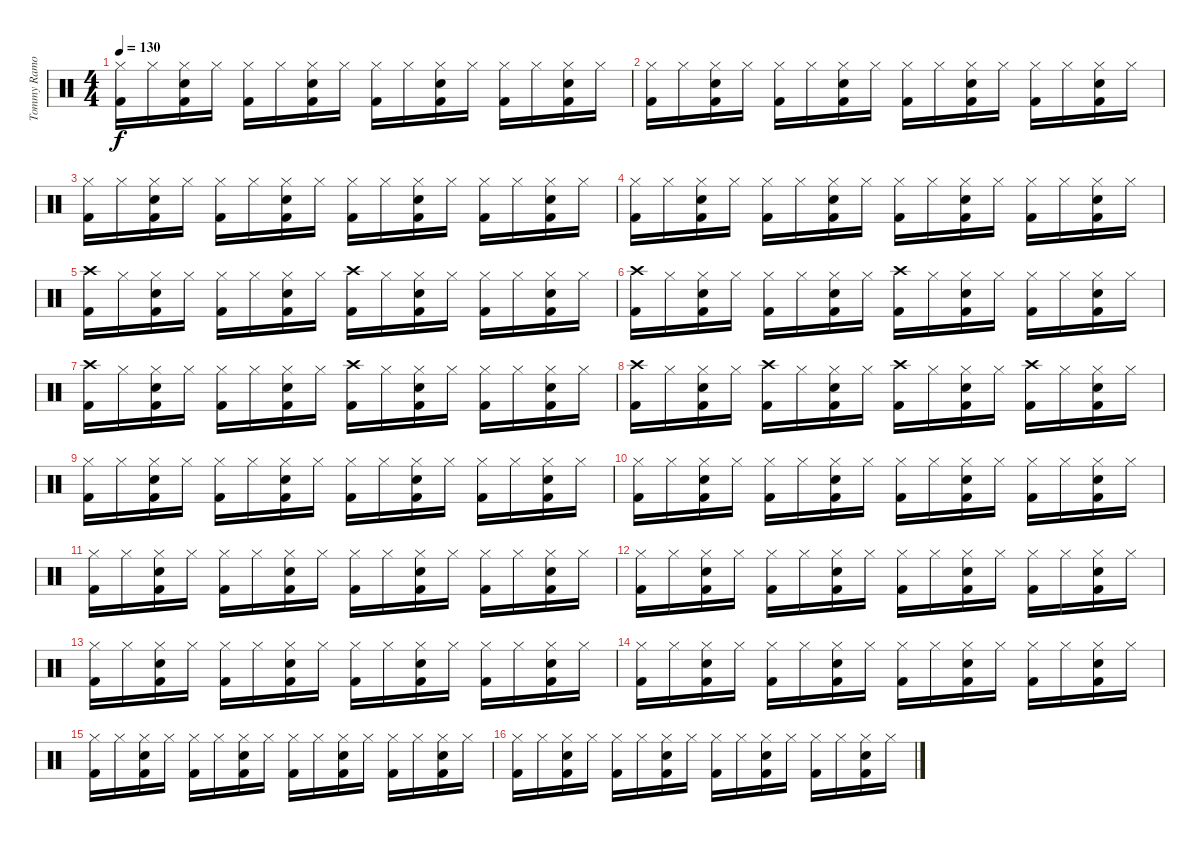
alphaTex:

\track ("Tommy Ramone - Percusion" "Tommy Ramo") {instrument percussion}
\staff {score}
\articulation defaults
\ts (4 4)
\tempo 130
\clef neutral
\ks c
("Hi-Hat (closed)" "Kick (hit) 2").16{dy f} "Hi-Hat (closed)".16 ("Hi-Hat (closed)" "Electric Snare (hit)" "Kick (hit) 2").16 "Hi-Hat (closed)".16 ("Hi-Hat (closed)" "Kick (hit) 2").16 "Hi-Hat (closed)".16 ("Hi-Hat (closed)" "Electric Snare (hit)" "Kick (hit) 2").16 "Hi-Hat (closed)".16 ("Hi-Hat (closed)" "Kick (hit) 2").16 "Hi-Hat (closed)".16 ("Hi-Hat (closed)" "Electric Snare (hit)" "Kick (hit) 2").16 "Hi-Hat (closed)".16 ("Hi-Hat (closed)" "Kick (hit) 2").16 "Hi-Hat (closed)".16 ("Hi-Hat (closed)" "Electric Snare (hit)" "Kick (hit) 2").16 "Hi-Hat (closed)".16 |
("Hi-Hat (closed)" "Kick (hit) 2").16 "Hi-Hat (closed)".16 ("Hi-Hat (closed)" "Electric Snare (hit)" "Kick (hit) 2").16 "Hi-Hat (closed)".16 ("Hi-Hat (closed)" "Kick (hit) 2").16 "Hi-Hat (closed)".16 ("Hi-Hat (closed)" "Electric Snare (hit)" "Kick (hit) 2").16 "Hi-Hat (closed)".16 ("Hi-Hat (closed)" "Kick (hit) 2").16 "Hi-Hat (closed)".16 ("Hi-Hat (closed)" "Electric Snare (hit)" "Kick (hit) 2").16 "Hi-Hat (closed)".16 ("Hi-Hat (closed)" "Kick (hit) 2").16 "Hi-Hat (closed)".16 ("Hi-Hat (closed)" "Electric Snare (hit)" "Kick (hit) 2").16 "Hi-Hat (closed)".16 |
("Hi-Hat (closed)" "Kick (hit) 2").16 "Hi-Hat (closed)".16 ("Hi-Hat (closed)" "Electric Snare (hit)" "Kick (hit) 2").16 "Hi-Hat (closed)".16 ("Hi-Hat (closed)" "Kick (hit) 2").16 "Hi-Hat (closed)".16 ("Hi-Hat (closed)" "Electric Snare (hit)" "Kick (hit) 2").16 "Hi-Hat (closed)".16 ("Hi-Hat (closed)" "Kick (hit) 2").16 "Hi-Hat (closed)".16 ("Hi-Hat (closed)" "Electric Snare (hit)" "Kick (hit) 2").16 "Hi-Hat (closed)".16 ("Hi-Hat (closed)" "Kick (hit) 2").16 "Hi-Hat (closed)".16 ("Hi-Hat (closed)" "Electric Snare (hit)" "Kick (hit) 2").16 "Hi-Hat (closed)".16 |
("Hi-Hat (closed)" "Kick (hit) 2").16 "Hi-Hat (closed)".16 ("Hi-Hat (closed)" "Electric Snare (hit)" "Kick (hit) 2").16 "Hi-Hat (closed)".16 ("Hi-Hat (closed)" "Kick (hit) 2").16 "Hi-Hat (closed)".16 ("Hi-Hat (closed)" "Electric Snare (hit)" "Kick (hit) 2").16 "Hi-Hat (closed)".16 ("Hi-Hat (closed)" "Kick (hit) 2").16 "Hi-Hat (closed)".16 ("Hi-Hat (closed)" "Electric Snare (hit)" "Kick (hit) 2").16 "Hi-Hat (closed)".16 ("Hi-Hat (closed)" "Kick (hit) 2").16 "Hi-Hat (closed)".16 ("Hi-Hat (closed)" "Electric Snare (hit)" "Kick (hit) 2").16 "Hi-Hat (closed)".16 |
("Crash high (hit)" "Kick (hit) 2").16 "Hi-Hat (closed)".16 ("Hi-Hat (closed)" "Electric Snare (hit)" "Kick (hit) 2").16 "Hi-Hat (closed)".16 ("Hi-Hat (closed)" "Kick (hit) 2").16 "Hi-Hat (closed)".16 ("Hi-Hat (closed)" "Electric Snare (hit)" "Kick (hit) 2").16 "Hi-Hat (closed)".16 ("Crash high (hit)" "Kick (hit) 2").16 "Hi-Hat (closed)".16 ("Hi-Hat (closed)" "Electric Snare (hit)" "Kick (hit) 2").16 "Hi-Hat (closed)".16 ("Hi-Hat (closed)" "Kick (hit) 2").16 "Hi-Hat (closed)".16 ("Hi-Hat (closed)" "Electric Snare (hit)" "Kick (hit) 2").16 "Hi-Hat (closed)".16 |
("Crash high (hit)" "Kick (hit) 2").16 "Hi-Hat (closed)".16 ("Hi-Hat (closed)" "Electric Snare (hit)" "Kick (hit) 2").16 "Hi-Hat (closed)".16 ("Hi-Hat (closed)" "Kick (hit) 2").16 "Hi-Hat (closed)".16 ("Hi-Hat (closed)" "Electric Snare (hit)" "Kick (hit) 2").16 "Hi-Hat (closed)".16 ("Crash high (hit)" "Kick (hit) 2").16 "Hi-Hat (closed)".16 ("Hi-Hat (closed)" "Electric Snare (hit)" "Kick (hit) 2").16 "Hi-Hat (closed)".16 ("Hi-Hat (closed)" "Kick (hit) 2").16 "Hi-Hat (closed)".16 ("Hi-Hat (closed)" "Electric Snare (hit)" "Kick (hit) 2").16 "Hi-Hat (closed)".16 |
("Crash high (hit)" "Kick (hit) 2").16 "Hi-Hat (closed)".16 ("Hi-Hat (closed)" "Electric Snare (hit)" "Kick (hit) 2").16 "Hi-Hat (closed)".16 ("Hi-Hat (closed)" "Kick (hit) 2").16 "Hi-Hat (closed)".16 ("Hi-Hat (closed)" "Electric Snare (hit)" "Kick (hit) 2").16 "Hi-Hat (closed)".16 ("Crash high (hit)" "Kick (hit) 2").16 "Hi-Hat (closed)".16 ("Hi-Hat (closed)" "Electric Snare (hit)" "Kick (hit) 2").16 "Hi-Hat (closed)".16 ("Hi-Hat (closed)" "Kick (hit) 2").16 "Hi-Hat (closed)".16 ("Hi-Hat (closed)" "Electric Snare (hit)" "Kick (hit) 2").16 "Hi-Hat (closed)".16 |
("Crash high (hit)" "Kick (hit) 2").16 "Hi-Hat (closed)".16 ("Hi-Hat (closed)" "Electric Snare (hit)" "Kick (hit) 2").16 "Hi-Hat (closed)".16 ("Crash high (hit)" "Kick (hit) 2").16 "Hi-Hat (closed)".16 ("Hi-Hat (closed)" "Electric Snare (hit)" "Kick (hit) 2").16 "Hi-Hat (closed)".16 ("Crash high (hit)" "Kick (hit) 2").16 "Hi-Hat (closed)".16 ("Hi-Hat (closed)" "Electric Snare (hit)" "Kick (hit) 2").16 "Hi-Hat (closed)".16 ("Crash high (hit)" "Kick (hit) 2").16 "Hi-Hat (closed)".16 ("Hi-Hat (closed)" "Electric Snare (hit)" "Kick (hit) 2").16 "Hi-Hat (closed)".16 |
("Hi-Hat (closed)" "Kick (hit) 2").16 "Hi-Hat (closed)".16 ("Hi-Hat (closed)" "Electric Snare (hit)" "Kick (hit) 2").16 "Hi-Hat (closed)".16 ("Hi-Hat (closed)" "Kick (hit) 2").16 "Hi-Hat (closed)".16 ("Hi-Hat (closed)" "Electric Snare (hit)" "Kick (hit) 2").16 "Hi-Hat (closed)".16 ("Hi-Hat (closed)" "Kick (hit) 2").16 "Hi-Hat (closed)".16 ("Hi-Hat (closed)" "Electric Snare (hit)" "Kick (hit) 2").16 "Hi-Hat (closed)".16 ("Hi-Hat (closed)" "Kick (hit) 2").16 "Hi-Hat (closed)".16 ("Hi-Hat (closed)" "Electric Snare (hit)" "Kick (hit) 2").16 "Hi-Hat (closed)".16 |
("Hi-Hat (closed)" "Kick (hit) 2").16 "Hi-Hat (closed)".16 ("Hi-Hat (closed)" "Electric Snare (hit)" "Kick (hit) 2").16 "Hi-Hat (closed)".16 ("Hi-Hat (closed)" "Kick (hit) 2").16 "Hi-Hat (closed)".16 ("Hi-Hat (closed)" "Electric Snare (hit)" "Kick (hit) 2").16 "Hi-Hat (closed)".16 ("Hi-Hat (closed)" "Kick (hit) 2").16 "Hi-Hat (closed)".16 ("Hi-Hat (closed)" "Electric Snare (hit)" "Kick (hit) 2").16 "Hi-Hat (closed)".16 ("Hi-Hat (closed)" "Kick (hit) 2").16 "Hi-Hat (closed)".16 ("Hi-Hat (closed)" "Electric Snare (hit)" "Kick (hit) 2").16 "Hi-Hat (closed)".16 |
("Hi-Hat (closed)" "Kick (hit) 2").16 "Hi-Hat (closed)".16 ("Hi-Hat (closed)" "Electric Snare (hit)" "Kick (hit) 2").16 "Hi-Hat (closed)".16 ("Hi-Hat (closed)" "Kick (hit) 2").16 "Hi-Hat (closed)".16 ("Hi-Hat (closed)" "Electric Snare (hit)" "Kick (hit) 2").16 "Hi-Hat (closed)".16 ("Hi-Hat (closed)" "Kick (hit) 2").16 "Hi-Hat (closed)".16 ("Hi-Hat (closed)" "Electric Snare (hit)" "Kick (hit) 2").16 "Hi-Hat (closed)".16 ("Hi-Hat (closed)" "Kick (hit) 2").16 "Hi-Hat (closed)".16 ("Hi-Hat (closed)" "Electric Snare (hit)" "Kick (hit) 2").16 "Hi-Hat (closed)".16 |
("Hi-Hat (closed)" "Kick (hit) 2").16 "Hi-Hat (closed)".16 ("Hi-Hat (closed)" "Electric Snare (hit)" "Kick (hit) 2").16 "Hi-Hat (closed)".16 ("Hi-Hat (closed)" "Kick (hit) 2").16 "Hi-Hat (closed)".16 ("Hi-Hat (closed)" "Electric Snare (hit)" "Kick (hit) 2").16 "Hi-Hat (closed)".16 ("Hi-Hat (closed)" "Kick (hit) 2").16 "Hi-Hat (closed)".16 ("Hi-Hat (closed)" "Electric Snare (hit)" "Kick (hit) 2").16 "Hi-Hat (closed)".16 ("Hi-Hat (closed)" "Kick (hit) 2").16 "Hi-Hat (closed)".16 ("Hi-Hat (closed)" "Electric Snare (hit)" "Kick (hit) 2").16 "Hi-Hat (closed)".16 |
("Hi-Hat (closed)" "Kick (hit) 2").16 "Hi-Hat (closed)".16 ("Hi-Hat (closed)" "Electric Snare (hit)" "Kick (hit) 2").16 "Hi-Hat (closed)".16 ("Hi-Hat (closed)" "Kick (hit) 2").16 "Hi-Hat (closed)".16 ("Hi-Hat (closed)" "Electric Snare (hit)" "Kick (hit) 2").16 "Hi-Hat (closed)".16 ("Hi-Hat (closed)" "Kick (hit) 2").16 "Hi-Hat (closed)".16 ("Hi-Hat (closed)" "Electric Snare (hit)" "Kick (hit) 2").16 "Hi-Hat (closed)".16 ("Hi-Hat (closed)" "Kick (hit) 2").16 "Hi-Hat (closed)".16 ("Hi-Hat (closed)" "Electric Snare (hit)" "Kick (hit) 2").16 "Hi-Hat (closed)".16 |
("Hi-Hat (closed)" "Kick (hit) 2").16 "Hi-Hat (closed)".16 ("Hi-Hat (closed)" "Electric Snare (hit)" "Kick (hit) 2").16 "Hi-Hat (closed)".16 ("Hi-Hat (closed)" "Kick (hit) 2").16 "Hi-Hat (closed)".16 ("Hi-Hat (closed)" "Electric Snare (hit)" "Kick (hit) 2").16 "Hi-Hat (closed)".16 ("Hi-Hat (closed)" "Kick (hit) 2").16 "Hi-Hat (closed)".16 ("Hi-Hat (closed)" "Electric Snare (hit)" "Kick (hit) 2").16 "Hi-Hat (closed)".16 ("Hi-Hat (closed)" "Kick (hit) 2").16 "Hi-Hat (closed)".16 ("Hi-Hat (closed)" "Electric Snare (hit)" "Kick (hit) 2").16 "Hi-Hat (closed)".16 |
("Hi-Hat (closed)" "Kick (hit) 2").16 "Hi-Hat (closed)".16 ("Hi-Hat (closed)" "Electric Snare (hit)" "Kick (hit) 2").16 "Hi-Hat (closed)".16 ("Hi-Hat (closed)" "Kick (hit) 2").16 "Hi-Hat (closed)".16 ("Hi-Hat (closed)" "Electric Snare (hit)" "Kick (hit) 2").16 "Hi-Hat (closed)".16 ("Hi-Hat (closed)" "Kick (hit) 2").16 "Hi-Hat (closed)".16 ("Hi-Hat (closed)" "Electric Snare (hit)" "Kick (hit) 2").16 "Hi-Hat (closed)".16 ("Hi-Hat (closed)" "Kick (hit) 2").16 "Hi-Hat (closed)".16 ("Hi-Hat (closed)" "Electric Snare (hit)" "Kick (hit) 2").16 "Hi-Hat (closed)".16 |
("Hi-Hat (closed)" "Kick (hit) 2").16 "Hi-Hat (closed)".16 ("Hi-Hat (closed)" "Electric Snare (hit)" "Kick (hit) 2").16 "Hi-Hat (closed)".16 ("Hi-Hat (closed)" "Kick (hit) 2").16 "Hi-Hat (closed)".16 ("Hi-Hat (closed)" "Electric Snare (hit)" "Kick (hit) 2").16 "Hi-Hat (closed)".16 ("Hi-Hat (closed)" "Kick (hit) 2").16 "Hi-Hat (closed)".16 ("Hi-Hat (closed)" "Electric Snare (hit)" "Kick (hit) 2").16 "Hi-Hat (closed)".16 ("Hi-Hat (closed)" "Kick (hit) 2").16 "Hi-Hat (closed)".16 ("Hi-Hat (closed)" "Electric Snare (hit)" "Kick (hit) 2").16 "Hi-Hat (closed)".16
